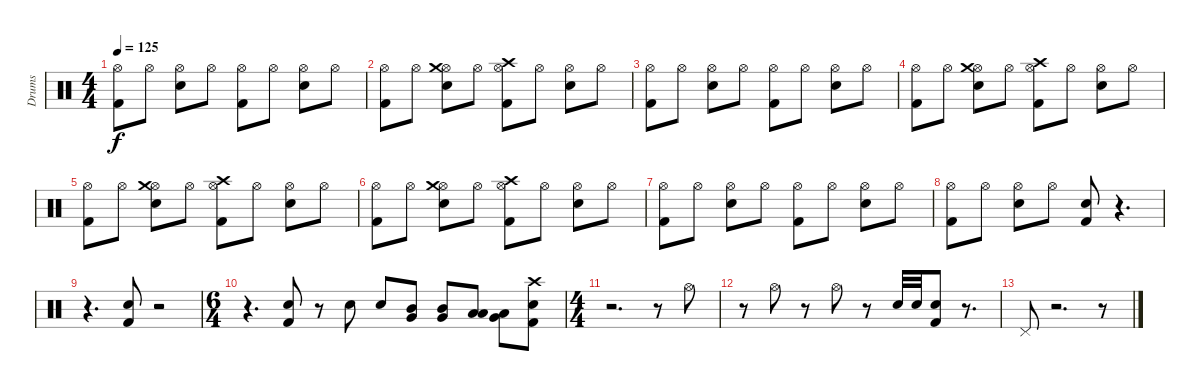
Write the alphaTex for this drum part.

\track ("Drums" "Drums") {instrument percussion}
\staff {score}
\articulation defaults
\ts (4 4)
\tempo 125
\clef neutral
\ks c
("Kick (hit) 2" "Hi-Hat (open)").8{dy f} "Hi-Hat (open)".8 ("Electric Snare (hit)" "Hi-Hat (open)").8 "Hi-Hat (open)".8 ("Kick (hit) 2" "Hi-Hat (open)").8 "Hi-Hat (open)".8 ("Electric Snare (hit)" "Hi-Hat (open)").8 "Hi-Hat (open)".8 |
("Kick (hit) 2" "Hi-Hat (open)").8 "Hi-Hat (open)".8 ("Electric Snare (hit)" "Hi-Hat (open)" "Crash medium (hit)").8 "Hi-Hat (open)".8 ("Kick (hit) 2" "Hi-Hat (open)" "Crash high (hit)").8 "Hi-Hat (open)".8 ("Electric Snare (hit)" "Hi-Hat (open)").8 "Hi-Hat (open)".8 |
("Kick (hit) 2" "Hi-Hat (open)").8 "Hi-Hat (open)".8 ("Electric Snare (hit)" "Hi-Hat (open)").8 "Hi-Hat (open)".8 ("Kick (hit) 2" "Hi-Hat (open)").8 "Hi-Hat (open)".8 ("Electric Snare (hit)" "Hi-Hat (open)").8 "Hi-Hat (open)".8 |
("Kick (hit) 2" "Hi-Hat (open)").8 "Hi-Hat (open)".8 ("Electric Snare (hit)" "Hi-Hat (open)" "Crash medium (hit)").8 "Hi-Hat (open)".8 ("Kick (hit) 2" "Hi-Hat (open)" "Crash high (hit)").8 "Hi-Hat (open)".8 ("Electric Snare (hit)" "Hi-Hat (open)").8 "Hi-Hat (open)".8 |
("Kick (hit) 2" "Hi-Hat (open)").8 "Hi-Hat (open)".8 ("Electric Snare (hit)" "Hi-Hat (open)" "Crash medium (hit)").8 "Hi-Hat (open)".8 ("Kick (hit) 2" "Hi-Hat (open)" "Crash high (hit)").8 "Hi-Hat (open)".8 ("Electric Snare (hit)" "Hi-Hat (open)").8 "Hi-Hat (open)".8 |
("Kick (hit) 2" "Hi-Hat (open)").8 "Hi-Hat (open)".8 ("Electric Snare (hit)" "Hi-Hat (open)" "Crash medium (hit)").8 "Hi-Hat (open)".8 ("Kick (hit) 2" "Hi-Hat (open)" "Crash high (hit)").8 "Hi-Hat (open)".8 ("Electric Snare (hit)" "Hi-Hat (open)").8 "Hi-Hat (open)".8 |
("Kick (hit) 2" "Hi-Hat (open)").8 "Hi-Hat (open)".8 ("Electric Snare (hit)" "Hi-Hat (open)").8 "Hi-Hat (open)".8 ("Kick (hit) 2" "Hi-Hat (open)").8 "Hi-Hat (open)".8 ("Electric Snare (hit)" "Hi-Hat (open)").8 "Hi-Hat (open)".8 |
("Kick (hit) 2" "Hi-Hat (open)").8 "Hi-Hat (open)".8 ("Electric Snare (hit)" "Hi-Hat (open)").8 "Hi-Hat (open)".8 ("Kick (hit) 2" "Electric Snare (hit)").8 r.4{d} |
r.4{d} ("Kick (hit) 2" "Electric Snare (hit)").8 r.2 |
\ts (6 4)
r.4{d} ("Kick (hit) 2" "Electric Snare (hit)").8 r.8 "Electric Snare (hit)".8 "Electric Snare (hit)".8 ("Very Low Tom (hit)" "Mid Tom (hit)").8 ("Very Low Tom (hit)" "Mid Tom (hit)").8 ("Low Floor Tom (hit)" "Low Tom (hit)").8 ("Low Floor Tom (hit)" "Very Low Tom (hit)").8 ("Kick (hit) 2" "Electric Snare (hit)" "Crash high (hit)").8 |
\ts (4 4)
r.2{d} r.8 "Hi-Hat (open)".8 |
r.8 "Hi-Hat (open)".8 r.8 "Hi-Hat (open)".8 r.8 "Electric Snare (hit)".32 "Electric Snare (hit)".32 ("Kick (hit) 2" "Electric Snare (hit)").8 r.8{d} |
"Pedal Hi-Hat (hit)".8 r.2{d} r.8
